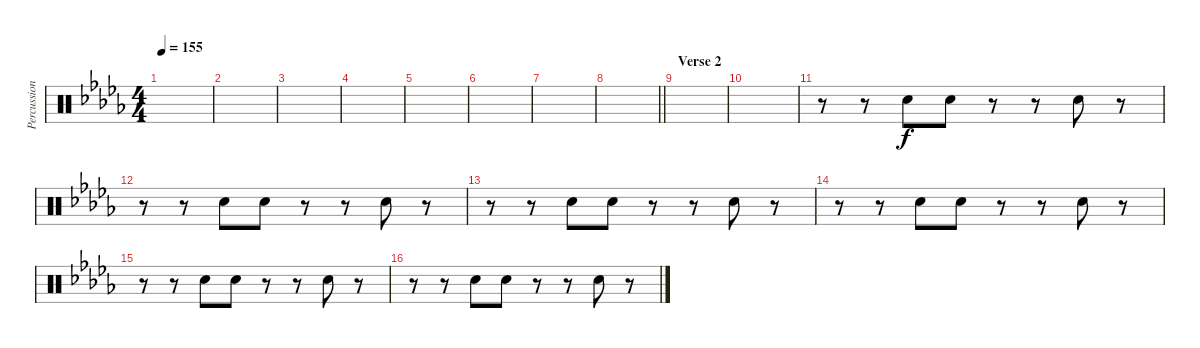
\track ("Percussions" "Percussion") {instrument percussion}
\staff {score}
\articulation defaults
\ts (4 4)
\tempo 155
\clef neutral
\ks db
|
|
|
|
|
|
|
\barLineRight lightlight
|
\section ("" "Verse 2")
|
|
r.8 r.8 "Hand Clap (hit)".8 "Hand Clap (hit)".8 r.8 r.8 "Hand Clap (hit)".8 r.8 |
r.8 r.8 "Hand Clap (hit)".8 "Hand Clap (hit)".8 r.8 r.8 "Hand Clap (hit)".8 r.8 |
r.8 r.8 "Hand Clap (hit)".8 "Hand Clap (hit)".8 r.8 r.8 "Hand Clap (hit)".8 r.8 |
r.8 r.8 "Hand Clap (hit)".8 "Hand Clap (hit)".8 r.8 r.8 "Hand Clap (hit)".8 r.8 |
r.8 r.8 "Hand Clap (hit)".8 "Hand Clap (hit)".8 r.8 r.8 "Hand Clap (hit)".8 r.8 |
r.8 r.8 "Hand Clap (hit)".8 "Hand Clap (hit)".8 r.8 r.8 "Hand Clap (hit)".8 r.8
